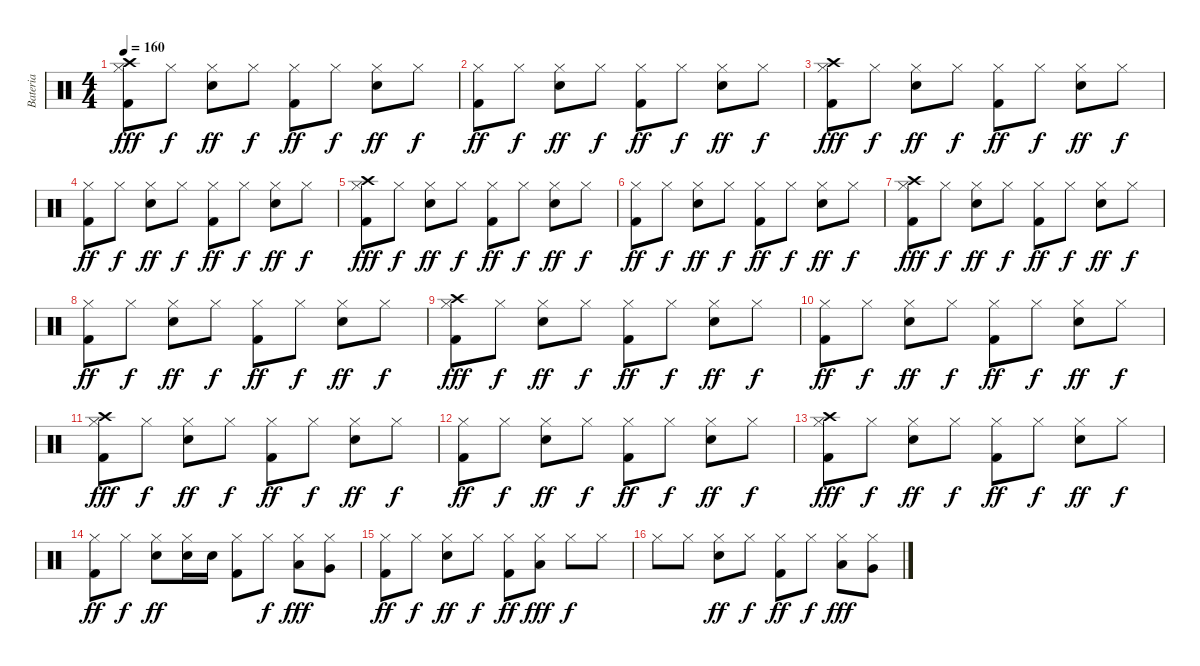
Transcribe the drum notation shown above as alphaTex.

\track ("Bateria" "Bateria") {instrument percussion}
\staff {score}
\articulation defaults
\ts (4 4)
\tempo 160
\clef neutral
\ks c
("Kick (hit) 2" "Crash high (hit)" "Hi-Hat (closed)").8{dy fff} "Hi-Hat (closed)".8{dy f} ("Hi-Hat (closed)" "Snare (hit) 2").8{dy ff} "Hi-Hat (closed)".8{dy f} ("Kick (hit) 2" "Hi-Hat (closed)").8{dy ff} "Hi-Hat (closed)".8{dy f} ("Hi-Hat (closed)" "Snare (hit) 2").8{dy ff} "Hi-Hat (closed)".8{dy f} |
("Kick (hit) 2" "Hi-Hat (closed)").8{dy ff} "Hi-Hat (closed)".8{dy f} ("Hi-Hat (closed)" "Snare (hit) 2").8{dy ff} "Hi-Hat (closed)".8{dy f} ("Kick (hit) 2" "Hi-Hat (closed)").8{dy ff} "Hi-Hat (closed)".8{dy f} ("Hi-Hat (closed)" "Snare (hit) 2").8{dy ff} "Hi-Hat (closed)".8{dy f} |
("Kick (hit) 2" "Crash high (hit)" "Hi-Hat (closed)").8{dy fff} "Hi-Hat (closed)".8{dy f} ("Hi-Hat (closed)" "Snare (hit) 2").8{dy ff} "Hi-Hat (closed)".8{dy f} ("Kick (hit) 2" "Hi-Hat (closed)").8{dy ff} "Hi-Hat (closed)".8{dy f} ("Hi-Hat (closed)" "Snare (hit) 2").8{dy ff} "Hi-Hat (closed)".8{dy f} |
("Kick (hit) 2" "Hi-Hat (closed)").8{dy ff} "Hi-Hat (closed)".8{dy f} ("Hi-Hat (closed)" "Snare (hit) 2").8{dy ff} "Hi-Hat (closed)".8{dy f} ("Kick (hit) 2" "Hi-Hat (closed)").8{dy ff} "Hi-Hat (closed)".8{dy f} ("Hi-Hat (closed)" "Snare (hit) 2").8{dy ff} "Hi-Hat (closed)".8{dy f} |
("Kick (hit) 2" "Crash high (hit)" "Hi-Hat (closed)").8{dy fff} "Hi-Hat (closed)".8{dy f} ("Hi-Hat (closed)" "Snare (hit) 2").8{dy ff} "Hi-Hat (closed)".8{dy f} ("Kick (hit) 2" "Hi-Hat (closed)").8{dy ff} "Hi-Hat (closed)".8{dy f} ("Hi-Hat (closed)" "Snare (hit) 2").8{dy ff} "Hi-Hat (closed)".8{dy f} |
("Kick (hit) 2" "Hi-Hat (closed)").8{dy ff} "Hi-Hat (closed)".8{dy f} ("Hi-Hat (closed)" "Snare (hit) 2").8{dy ff} "Hi-Hat (closed)".8{dy f} ("Kick (hit) 2" "Hi-Hat (closed)").8{dy ff} "Hi-Hat (closed)".8{dy f} ("Hi-Hat (closed)" "Snare (hit) 2").8{dy ff} "Hi-Hat (closed)".8{dy f} |
("Kick (hit) 2" "Crash high (hit)" "Hi-Hat (closed)").8{dy fff} "Hi-Hat (closed)".8{dy f} ("Hi-Hat (closed)" "Snare (hit) 2").8{dy ff} "Hi-Hat (closed)".8{dy f} ("Kick (hit) 2" "Hi-Hat (closed)").8{dy ff} "Hi-Hat (closed)".8{dy f} ("Hi-Hat (closed)" "Snare (hit) 2").8{dy ff} "Hi-Hat (closed)".8{dy f} |
("Kick (hit) 2" "Hi-Hat (closed)").8{dy ff} "Hi-Hat (closed)".8{dy f} ("Hi-Hat (closed)" "Snare (hit) 2").8{dy ff} "Hi-Hat (closed)".8{dy f} ("Kick (hit) 2" "Hi-Hat (closed)").8{dy ff} "Hi-Hat (closed)".8{dy f} ("Hi-Hat (closed)" "Snare (hit) 2").8{dy ff} "Hi-Hat (closed)".8{dy f} |
("Kick (hit) 2" "Crash high (hit)" "Hi-Hat (closed)").8{dy fff} "Hi-Hat (closed)".8{dy f} ("Hi-Hat (closed)" "Snare (hit) 2").8{dy ff} "Hi-Hat (closed)".8{dy f} ("Kick (hit) 2" "Hi-Hat (closed)").8{dy ff} "Hi-Hat (closed)".8{dy f} ("Hi-Hat (closed)" "Snare (hit) 2").8{dy ff} "Hi-Hat (closed)".8{dy f} |
("Kick (hit) 2" "Hi-Hat (closed)").8{dy ff} "Hi-Hat (closed)".8{dy f} ("Hi-Hat (closed)" "Snare (hit) 2").8{dy ff} "Hi-Hat (closed)".8{dy f} ("Kick (hit) 2" "Hi-Hat (closed)").8{dy ff} "Hi-Hat (closed)".8{dy f} ("Hi-Hat (closed)" "Snare (hit) 2").8{dy ff} "Hi-Hat (closed)".8{dy f} |
("Kick (hit) 2" "Crash high (hit)" "Hi-Hat (closed)").8{dy fff} "Hi-Hat (closed)".8{dy f} ("Hi-Hat (closed)" "Snare (hit) 2").8{dy ff} "Hi-Hat (closed)".8{dy f} ("Kick (hit) 2" "Hi-Hat (closed)").8{dy ff} "Hi-Hat (closed)".8{dy f} ("Hi-Hat (closed)" "Snare (hit) 2").8{dy ff} "Hi-Hat (closed)".8{dy f} |
("Kick (hit) 2" "Hi-Hat (closed)").8{dy ff} "Hi-Hat (closed)".8{dy f} ("Hi-Hat (closed)" "Snare (hit) 2").8{dy ff} "Hi-Hat (closed)".8{dy f} ("Kick (hit) 2" "Hi-Hat (closed)").8{dy ff} "Hi-Hat (closed)".8{dy f} ("Hi-Hat (closed)" "Snare (hit) 2").8{dy ff} "Hi-Hat (closed)".8{dy f} |
("Kick (hit) 2" "Crash high (hit)" "Hi-Hat (closed)").8{dy fff} "Hi-Hat (closed)".8{dy f} ("Hi-Hat (closed)" "Snare (hit) 2").8{dy ff} "Hi-Hat (closed)".8{dy f} ("Kick (hit) 2" "Hi-Hat (closed)").8{dy ff} "Hi-Hat (closed)".8{dy f} ("Hi-Hat (closed)" "Snare (hit) 2").8{dy ff} "Hi-Hat (closed)".8{dy f} |
("Kick (hit) 2" "Hi-Hat (closed)").8{dy ff} "Hi-Hat (closed)".8{dy f} ("Hi-Hat (closed)" "Snare (hit) 2").8{dy ff} ("Snare (hit) 2" "Hi-Hat (closed)").16 "Snare (hit) 2".16 ("Kick (hit) 2" "Hi-Hat (closed)").8 "Hi-Hat (closed)".8{dy f} ("Hi-Hat (closed)" "Low Tom (hit)").8{dy fff} ("Very Low Tom (hit)" "Hi-Hat (closed)").8 |
("Hi-Hat (closed)" "Kick (hit) 2").8{dy ff} "Hi-Hat (closed)".8{dy f} ("Hi-Hat (closed)" "Snare (hit) 2").8{dy ff} "Hi-Hat (closed)".8{dy f} ("Kick (hit) 2" "Hi-Hat (closed)").8{dy ff} ("Low Tom (hit)" "Hi-Hat (closed)").8{dy fff} "Hi-Hat (closed)".8{dy f} "Hi-Hat (closed)".8 |
"Hi-Hat (closed)".8 "Hi-Hat (closed)".8 ("Hi-Hat (closed)" "Snare (hit) 2").8{dy ff} "Hi-Hat (closed)".8{dy f} ("Kick (hit) 2" "Hi-Hat (closed)").8{dy ff} "Hi-Hat (closed)".8{dy f} ("Hi-Hat (closed)" "Low Tom (hit)").8{dy fff} ("Very Low Tom (hit)" "Hi-Hat (closed)").8
